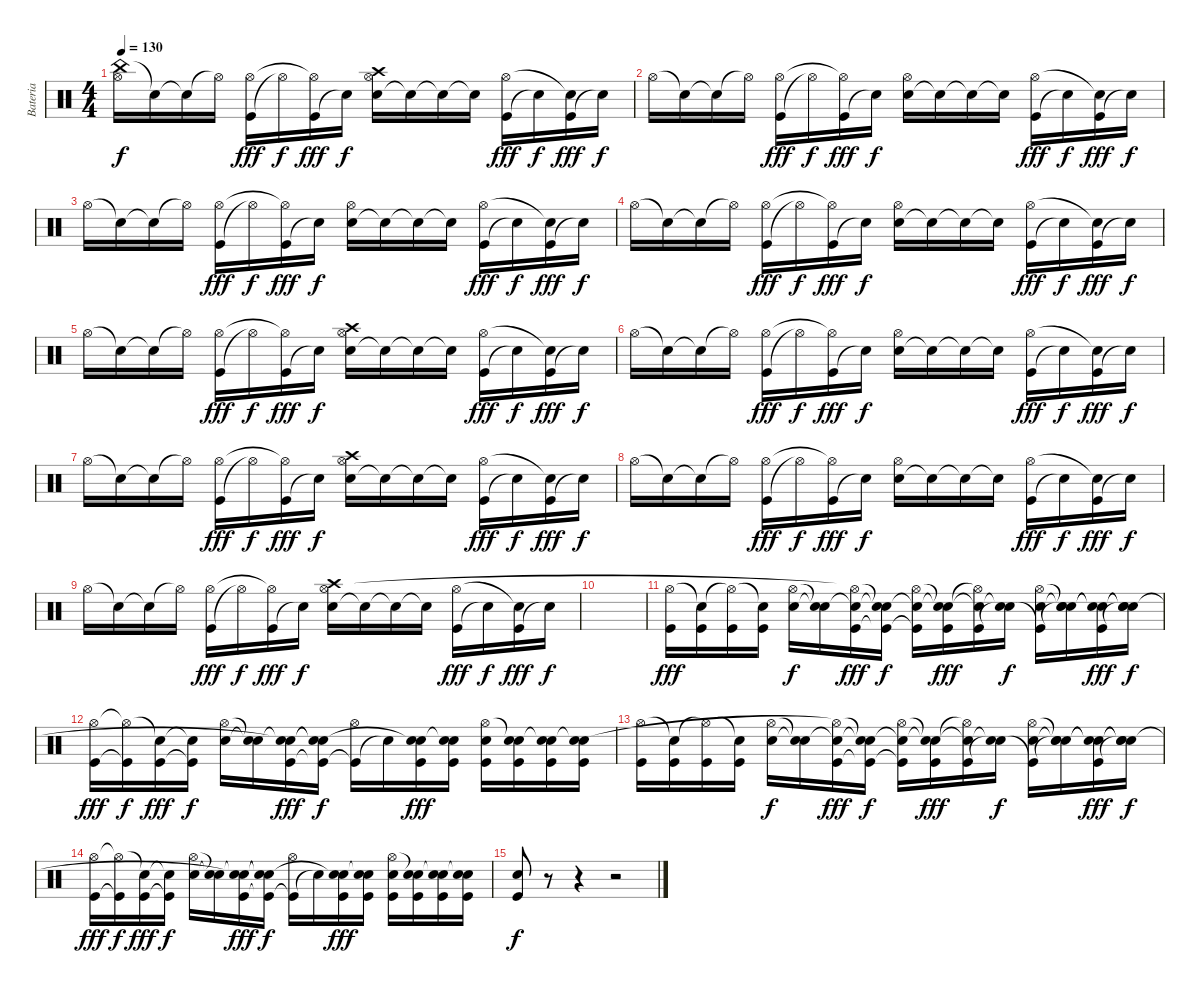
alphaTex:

\track ("Bateria" "Bateria") {instrument percussion}
\staff {score}
\articulation defaults
\ts (4 4)
\tempo 130
\clef neutral
\ks c
("China (hit)" "Hi-Hat (open)").16{dy f} "Snare (hit)"{t}.16 "Snare (hit)"{t}.16 "Hi-Hat (open)"{t}.16 ("Kick (hit)" "Hi-Hat (open)").16{dy fff} "Hi-Hat (open)"{t}.16{dy f} ("Kick (hit)" "Hi-Hat (open)"{t}).16{dy fff} "Snare (hit)"{t}.16{dy f} ("Electric Snare (hit)" "Crash high (hit)" "Hi-Hat (open)").16 "Snare (hit)"{t}.16 "Snare (hit)"{t}.16 "Snare (hit)"{t}.16 ("Kick (hit)" "Hi-Hat (open)").16{dy fff} "Snare (hit)"{t}.16{dy f} ("Kick (hit)" "Snare (hit)"{t}).16{dy fff} "Snare (hit)"{t}.16{dy f} |
"Hi-Hat (open)".16 "Snare (hit)"{t}.16 "Snare (hit)"{t}.16 "Hi-Hat (open)"{t}.16 ("Kick (hit)" "Hi-Hat (open)").16{dy fff} "Hi-Hat (open)"{t}.16{dy f} ("Kick (hit)" "Hi-Hat (open)"{t}).16{dy fff} "Snare (hit)"{t}.16{dy f} ("Electric Snare (hit)" "Hi-Hat (open)").16 "Snare (hit)"{t}.16 "Snare (hit)"{t}.16 "Snare (hit)"{t}.16 ("Kick (hit)" "Hi-Hat (open)").16{dy fff} "Snare (hit)"{t}.16{dy f} ("Kick (hit)" "Snare (hit)"{t}).16{dy fff} "Snare (hit)"{t}.16{dy f} |
"Hi-Hat (open)".16 "Snare (hit)"{t}.16 "Snare (hit)"{t}.16 "Hi-Hat (open)"{t}.16 ("Kick (hit)" "Hi-Hat (open)").16{dy fff} "Hi-Hat (open)"{t}.16{dy f} ("Kick (hit)" "Hi-Hat (open)"{t}).16{dy fff} "Snare (hit)"{t}.16{dy f} ("Electric Snare (hit)" "Hi-Hat (open)").16 "Snare (hit)"{t}.16 "Snare (hit)"{t}.16 "Snare (hit)"{t}.16 ("Kick (hit)" "Hi-Hat (open)").16{dy fff} "Snare (hit)"{t}.16{dy f} ("Kick (hit)" "Snare (hit)"{t}).16{dy fff} "Snare (hit)"{t}.16{dy f} |
"Hi-Hat (open)".16 "Snare (hit)"{t}.16 "Snare (hit)"{t}.16 "Hi-Hat (open)"{t}.16 ("Kick (hit)" "Hi-Hat (open)").16{dy fff} "Hi-Hat (open)"{t}.16{dy f} ("Kick (hit)" "Hi-Hat (open)"{t}).16{dy fff} "Snare (hit)"{t}.16{dy f} ("Electric Snare (hit)" "Hi-Hat (open)").16 "Snare (hit)"{t}.16 "Snare (hit)"{t}.16 "Snare (hit)"{t}.16 ("Kick (hit)" "Hi-Hat (open)").16{dy fff} "Snare (hit)"{t}.16{dy f} ("Kick (hit)" "Snare (hit)"{t}).16{dy fff} "Snare (hit)"{t}.16{dy f} |
"Hi-Hat (open)".16 "Snare (hit)"{t}.16 "Snare (hit)"{t}.16 "Hi-Hat (open)"{t}.16 ("Kick (hit)" "Hi-Hat (open)").16{dy fff} "Hi-Hat (open)"{t}.16{dy f} ("Kick (hit)" "Hi-Hat (open)"{t}).16{dy fff} "Snare (hit)"{t}.16{dy f} ("Electric Snare (hit)" "Crash high (hit)" "Hi-Hat (open)").16 "Snare (hit)"{t}.16 "Snare (hit)"{t}.16 "Snare (hit)"{t}.16 ("Kick (hit)" "Hi-Hat (open)").16{dy fff} "Snare (hit)"{t}.16{dy f} ("Kick (hit)" "Snare (hit)"{t}).16{dy fff} "Snare (hit)"{t}.16{dy f} |
"Hi-Hat (open)".16 "Snare (hit)"{t}.16 "Snare (hit)"{t}.16 "Hi-Hat (open)"{t}.16 ("Kick (hit)" "Hi-Hat (open)").16{dy fff} "Hi-Hat (open)"{t}.16{dy f} ("Kick (hit)" "Hi-Hat (open)"{t}).16{dy fff} "Snare (hit)"{t}.16{dy f} ("Electric Snare (hit)" "Hi-Hat (open)").16 "Snare (hit)"{t}.16 "Snare (hit)"{t}.16 "Snare (hit)"{t}.16 ("Kick (hit)" "Hi-Hat (open)").16{dy fff} "Snare (hit)"{t}.16{dy f} ("Kick (hit)" "Snare (hit)"{t}).16{dy fff} "Snare (hit)"{t}.16{dy f} |
"Hi-Hat (open)".16 "Snare (hit)"{t}.16 "Snare (hit)"{t}.16 "Hi-Hat (open)"{t}.16 ("Kick (hit)" "Hi-Hat (open)").16{dy fff} "Hi-Hat (open)"{t}.16{dy f} ("Kick (hit)" "Hi-Hat (open)"{t}).16{dy fff} "Snare (hit)"{t}.16{dy f} ("Electric Snare (hit)" "Crash high (hit)" "Hi-Hat (open)").16 "Snare (hit)"{t}.16 "Snare (hit)"{t}.16 "Snare (hit)"{t}.16 ("Kick (hit)" "Hi-Hat (open)").16{dy fff} "Snare (hit)"{t}.16{dy f} ("Kick (hit)" "Snare (hit)"{t}).16{dy fff} "Snare (hit)"{t}.16{dy f} |
"Hi-Hat (open)".16 "Snare (hit)"{t}.16 "Snare (hit)"{t}.16 "Hi-Hat (open)"{t}.16 ("Kick (hit)" "Hi-Hat (open)").16{dy fff} "Hi-Hat (open)"{t}.16{dy f} ("Kick (hit)" "Hi-Hat (open)"{t}).16{dy fff} "Snare (hit)"{t}.16{dy f} ("Electric Snare (hit)" "Hi-Hat (open)").16 "Snare (hit)"{t}.16 "Snare (hit)"{t}.16 "Snare (hit)"{t}.16 ("Kick (hit)" "Hi-Hat (open)").16{dy fff} "Snare (hit)"{t}.16{dy f} ("Kick (hit)" "Snare (hit)"{t}).16{dy fff} "Snare (hit)"{t}.16{dy f} |
"Hi-Hat (open)".16 "Snare (hit)"{t}.16 "Snare (hit)"{t}.16 "Hi-Hat (open)"{t}.16 ("Kick (hit)" "Hi-Hat (open)").16{dy fff} "Hi-Hat (open)"{t}.16{dy f} ("Kick (hit)" "Hi-Hat (open)"{t}).16{dy fff} "Snare (hit)"{t}.16{dy f} ("Electric Snare (hit)" "Crash high (hit)" "Hi-Hat (open)").16 "Snare (hit)"{t}.16 "Snare (hit)"{t}.16 "Snare (hit)"{t}.16 ("Kick (hit)" "Hi-Hat (open)").16{dy fff} "Snare (hit)"{t}.16{dy f} ("Kick (hit)" "Snare (hit)"{t}).16{dy fff} "Snare (hit)"{t}.16{dy f} |
|
("Kick (hit)" "Hi-Hat (open)").16{dy fff} ("Kick (hit)" "Snare (hit)"{t}).16 ("Kick (hit)" "Hi-Hat (open)"{t}).16 ("Kick (hit)" "Snare (hit)"{t}).16 ("Electric Snare (hit)" "Hi-Hat (open)").16{dy f} ("Snare (hit)"{t} "Snare (hit)"{t}).16 ("Kick (hit)" "Snare (hit)"{t} "Hi-Hat (open)"{t}).16{dy fff} ("Kick (hit)"{t} "Snare (hit)"{t} "Snare (hit)"{t}).16{dy f} ("Kick (hit)"{t} "Snare (hit)"{t} "Hi-Hat (open)").16 ("Kick (hit)" "Snare (hit)"{t} "Snare (hit)"{t}).16{dy fff} ("Kick (hit)" "Electric Snare (hit)"{t} "Hi-Hat (open)"{t}).16 ("Snare (hit)"{t} "Snare (hit)"{t}).16{dy f} ("Kick (hit)"{t} "Electric Snare (hit)" "Hi-Hat (open)").16 ("Snare (hit)"{t} "Snare (hit)"{t} "Snare (hit)"{t}).16 ("Kick (hit)" "Snare (hit)"{t} "Snare (hit)"{t}).16{dy fff} ("Snare (hit)"{t} "Snare (hit)"{t} "Snare (hit)"{t}).16{dy f} |
("Kick (hit)" "Hi-Hat (open)").16{dy fff} ("Kick (hit)"{t} "Hi-Hat (open)"{t}).16{dy f} ("Kick (hit)" "Snare (hit)"{t}).16{dy fff} ("Kick (hit)"{t} "Snare (hit)"{t}).16{dy f} ("Electric Snare (hit)" "Hi-Hat (open)").16 ("Snare (hit)"{t} "Snare (hit)"{t}).16 ("Kick (hit)" "Snare (hit)"{t} "Snare (hit)"{t}).16{dy fff} ("Kick (hit)"{t} "Snare (hit)"{t} "Snare (hit)"{t}).16{dy f} ("Kick (hit)"{t} "Hi-Hat (open)").16 "Snare (hit)"{t}.16 ("Kick (hit)" "Electric Snare (hit)" "Snare (hit)"{t}).16{dy fff} ("Kick (hit)" "Electric Snare (hit)" "Snare (hit)"{t}).16 ("Kick (hit)" "Electric Snare (hit)" "Hi-Hat (open)").16 ("Kick (hit)" "Electric Snare (hit)" "Snare (hit)"{t}).16 ("Kick (hit)" "Electric Snare (hit)" "Snare (hit)"{t}).16 ("Kick (hit)" "Electric Snare (hit)" "Snare (hit)"{t}).16 |
("Kick (hit)" "Hi-Hat (open)").16 ("Kick (hit)" "Snare (hit)"{t}).16 ("Kick (hit)" "Hi-Hat (open)"{t}).16 ("Kick (hit)" "Snare (hit)"{t}).16 ("Electric Snare (hit)" "Hi-Hat (open)").16{dy f} ("Snare (hit)"{t} "Snare (hit)"{t}).16 ("Kick (hit)" "Snare (hit)"{t} "Hi-Hat (open)"{t}).16{dy fff} ("Kick (hit)"{t} "Snare (hit)"{t} "Snare (hit)"{t}).16{dy f} ("Kick (hit)"{t} "Snare (hit)"{t} "Hi-Hat (open)").16 ("Kick (hit)" "Snare (hit)"{t} "Snare (hit)"{t}).16{dy fff} ("Kick (hit)" "Electric Snare (hit)"{t} "Hi-Hat (open)"{t}).16 ("Snare (hit)"{t} "Snare (hit)"{t}).16{dy f} ("Kick (hit)"{t} "Electric Snare (hit)" "Hi-Hat (open)").16 ("Snare (hit)"{t} "Snare (hit)"{t} "Snare (hit)"{t}).16 ("Kick (hit)" "Snare (hit)"{t} "Snare (hit)"{t}).16{dy fff} ("Snare (hit)"{t} "Snare (hit)"{t} "Snare (hit)"{t}).16{dy f} |
("Kick (hit)" "Hi-Hat (open)").16{dy fff} ("Kick (hit)"{t} "Hi-Hat (open)"{t}).16{dy f} ("Kick (hit)" "Snare (hit)"{t}).16{dy fff} ("Kick (hit)"{t} "Snare (hit)"{t}).16{dy f} ("Electric Snare (hit)" "Hi-Hat (open)").16 ("Snare (hit)"{t} "Snare (hit)"{t}).16 ("Kick (hit)" "Snare (hit)"{t} "Snare (hit)"{t}).16{dy fff} ("Kick (hit)"{t} "Snare (hit)"{t} "Snare (hit)"{t}).16{dy f} ("Kick (hit)"{t} "Hi-Hat (open)").16 "Snare (hit)"{t}.16 ("Kick (hit)" "Electric Snare (hit)" "Snare (hit)"{t}).16{dy fff} ("Kick (hit)" "Electric Snare (hit)" "Snare (hit)"{t}).16 ("Kick (hit)" "Electric Snare (hit)" "Hi-Hat (open)").16 ("Kick (hit)" "Electric Snare (hit)" "Snare (hit)"{t}).16 ("Kick (hit)" "Electric Snare (hit)" "Snare (hit)"{t}).16 ("Kick (hit)" "Electric Snare (hit)" "Snare (hit)"{t}).16 |
("Kick (hit)" "Electric Snare (hit)").8{dy f} r.8 r.4 r.2
